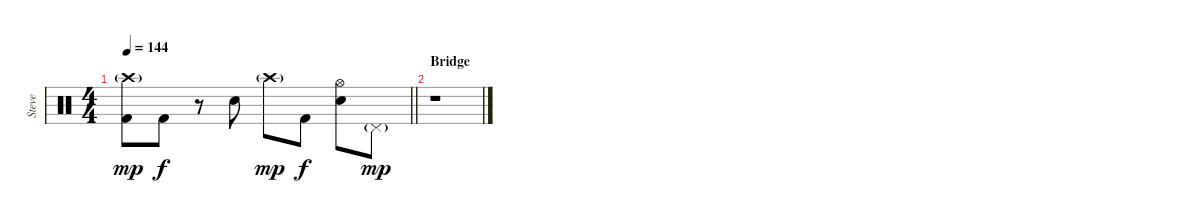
\track ("Steve" "Steve") {instrument percussion}
\staff {score}
\articulation defaults
\ts (4 4)
\tempo 144
\clef neutral
\barLineRight lightlight
\ks c
("Crash high (hit)"{g} "Kick (hit) 2").8{dy mp} "Kick (hit) 2".8{dy f} r.8 "Electric Snare (hit)".8 "Crash high (hit)"{g}.8{dy mp} "Kick (hit) 2".8{dy f} ("Hi-Hat (open)" "Electric Snare (hit)").8 "Pedal Hi-Hat (hit)"{g}.8{dy mp} |
\section ("" "Bridge")
r.1
